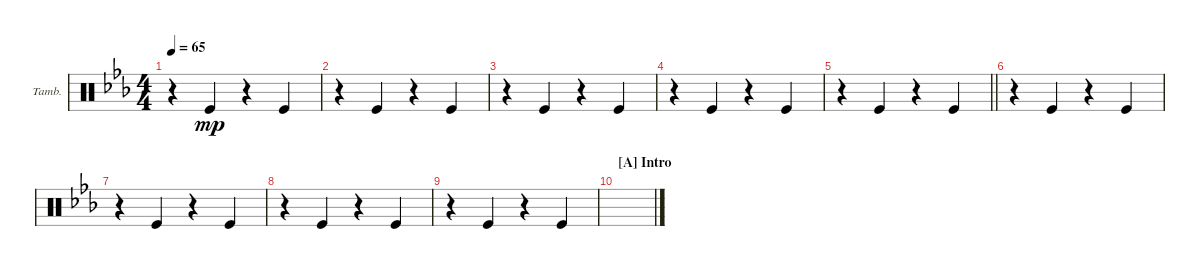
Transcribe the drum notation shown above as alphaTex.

\defaultSystemsLayout 4
\bracketExtendMode groupsimilarinstruments
\firstSystemTrackNameOrientation horizontal
\otherSystemsTrackNameOrientation horizontal
\track ("Tambourine" "Tamb.") {multiBarRest instrument percussion}
\staff {score}
\articulation defaults
\ts (4 4)
\tempo 65
\clef neutral
\scale
1.05675
\ks cminor
r.4{dy mp} "Kick (hit)".4 r.4 "Kick (hit)".4 |
\scale
0.943253 r.4 "Kick (hit)".4 r.4 "Kick (hit)".4 |
\scale
1.05675 r.4 "Kick (hit)".4 r.4 "Kick (hit)".4 |
\scale
0.943253 r.4 "Kick (hit)".4 r.4 "Kick (hit)".4 |
\scale
1.05675
\barLineRight lightlight
r.4 "Kick (hit)".4 r.4 "Kick (hit)".4 |
\scale
0.943253 r.4 "Kick (hit)".4 r.4 "Kick (hit)".4 |
\scale
1.05675 r.4 "Kick (hit)".4 r.4 "Kick (hit)".4 |
\scale
0.943253 r.4 "Kick (hit)".4 r.4 "Kick (hit)".4 |
\scale
6.22068 r.4 "Kick (hit)".4 r.4 "Kick (hit)".4 |
\section ("A" "Intro")
\scale
0.943253 |
\scale
0.943253 |
\scale
0.943253 |
\scale
0.943253 |
\scale
0.943253 |
\scale
0.943253 |
\scale
0.943253
